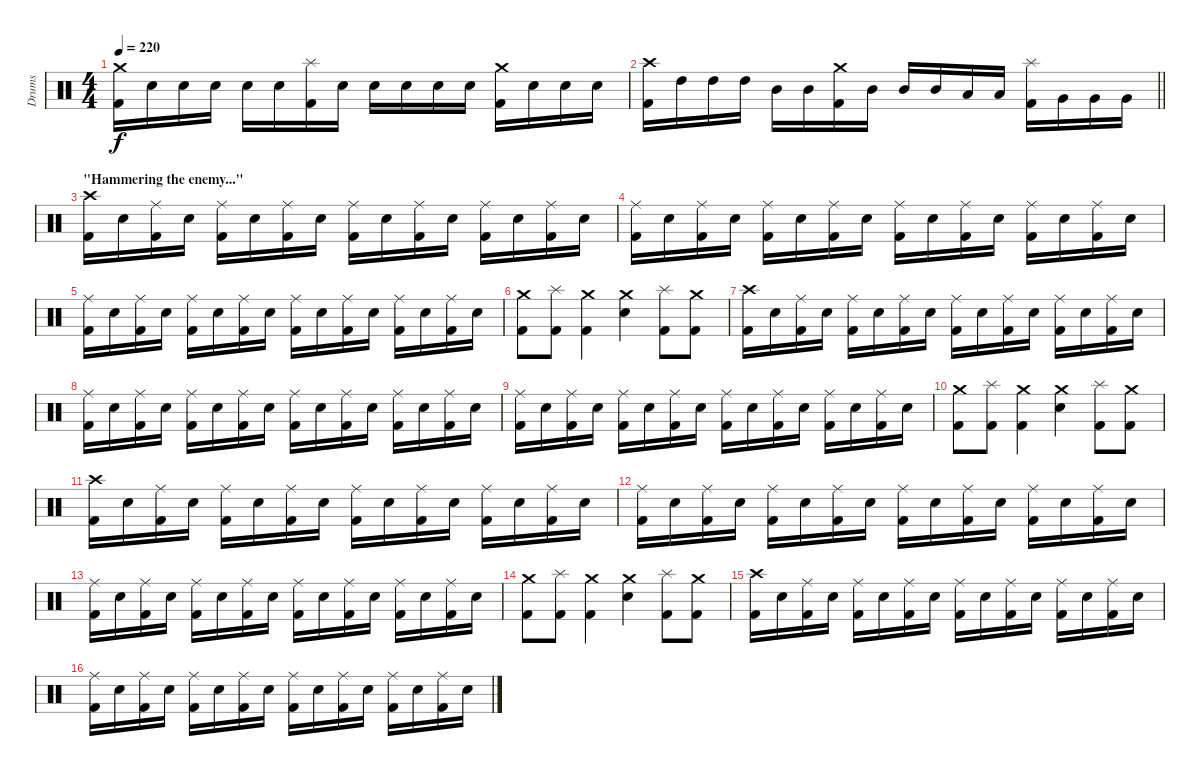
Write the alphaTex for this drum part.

\track ("Drums" "Drums") {instrument percussion}
\staff {score}
\articulation defaults
\ts (4 4)
\tempo 220
\clef neutral
\ks c
("Crash medium (hit)" "Kick (hit) 2").16{dy f} "Electric Snare (hit)".16 "Electric Snare (hit)".16 "Electric Snare (hit)".16 "Electric Snare (hit)".16 "Electric Snare (hit)".16 ("Splash (hit)" "Kick (hit) 2").16 "Electric Snare (hit)".16 "Electric Snare (hit)".16 "Electric Snare (hit)".16 "Electric Snare (hit)".16 "Electric Snare (hit)".16 ("Crash medium (hit)" "Kick (hit) 2").16 "Electric Snare (hit)".16 "Electric Snare (hit)".16 "Electric Snare (hit)".16 |
\barLineRight lightlight
("Crash high (hit)" "Kick (hit) 2").16 "High Tom (hit)".16 "High Tom (hit)".16 "High Tom (hit)".16 "Mid Tom (hit)".16 "Mid Tom (hit)".16 ("Crash medium (hit)" "Kick (hit) 2").16 "Mid Tom (hit)".16 "Mid Tom (hit)".16 "Mid Tom (hit)".16 "Low Tom (hit)".16 "Low Tom (hit)".16 ("Splash (hit)" "Kick (hit) 2").16 "Very Low Tom (hit)".16 "Very Low Tom (hit)".16 "Very Low Tom (hit)".16 |
\section ("" "\"Hammering the enemy...\"")
("Crash high (hit)" "Kick (hit) 2").16 "Electric Snare (hit)".16 ("Ride (middle)" "Kick (hit) 2").16 "Electric Snare (hit)".16 ("Ride (middle)" "Kick (hit) 2").16 "Electric Snare (hit)".16 ("Ride (middle)" "Kick (hit) 2").16 "Electric Snare (hit)".16 ("Ride (middle)" "Kick (hit) 2").16 "Electric Snare (hit)".16 ("Ride (middle)" "Kick (hit) 2").16 "Electric Snare (hit)".16 ("Ride (middle)" "Kick (hit) 2").16 "Electric Snare (hit)".16 ("Ride (middle)" "Kick (hit) 2").16 "Electric Snare (hit)".16 |
("Ride (middle)" "Kick (hit) 2").16 "Electric Snare (hit)".16 ("Ride (middle)" "Kick (hit) 2").16 "Electric Snare (hit)".16 ("Ride (middle)" "Kick (hit) 2").16 "Electric Snare (hit)".16 ("Ride (middle)" "Kick (hit) 2").16 "Electric Snare (hit)".16 ("Ride (middle)" "Kick (hit) 2").16 "Electric Snare (hit)".16 ("Ride (middle)" "Kick (hit) 2").16 "Electric Snare (hit)".16 ("Ride (middle)" "Kick (hit) 2").16 "Electric Snare (hit)".16 ("Ride (middle)" "Kick (hit) 2").16 "Electric Snare (hit)".16 |
("Ride (middle)" "Kick (hit) 2").16 "Electric Snare (hit)".16 ("Ride (middle)" "Kick (hit) 2").16 "Electric Snare (hit)".16 ("Ride (middle)" "Kick (hit) 2").16 "Electric Snare (hit)".16 ("Ride (middle)" "Kick (hit) 2").16 "Electric Snare (hit)".16 ("Ride (middle)" "Kick (hit) 2").16 "Electric Snare (hit)".16 ("Ride (middle)" "Kick (hit) 2").16 "Electric Snare (hit)".16 ("Ride (middle)" "Kick (hit) 2").16 "Electric Snare (hit)".16 ("Ride (middle)" "Kick (hit) 2").16 "Electric Snare (hit)".16 |
("Crash medium (hit)" "Kick (hit) 2").8 ("Splash (hit)" "Kick (hit) 2").8 ("Crash medium (hit)" "Kick (hit) 2").4 ("Crash medium (hit)" "Electric Snare (hit)").4 ("Splash (hit)" "Kick (hit) 2").8 ("Crash medium (hit)" "Kick (hit) 2").8 |
("Crash high (hit)" "Kick (hit) 2").16 "Electric Snare (hit)".16 ("Ride (middle)" "Kick (hit) 2").16 "Electric Snare (hit)".16 ("Ride (middle)" "Kick (hit) 2").16 "Electric Snare (hit)".16 ("Ride (middle)" "Kick (hit) 2").16 "Electric Snare (hit)".16 ("Ride (middle)" "Kick (hit) 2").16 "Electric Snare (hit)".16 ("Ride (middle)" "Kick (hit) 2").16 "Electric Snare (hit)".16 ("Ride (middle)" "Kick (hit) 2").16 "Electric Snare (hit)".16 ("Ride (middle)" "Kick (hit) 2").16 "Electric Snare (hit)".16 |
("Ride (middle)" "Kick (hit) 2").16 "Electric Snare (hit)".16 ("Ride (middle)" "Kick (hit) 2").16 "Electric Snare (hit)".16 ("Ride (middle)" "Kick (hit) 2").16 "Electric Snare (hit)".16 ("Ride (middle)" "Kick (hit) 2").16 "Electric Snare (hit)".16 ("Ride (middle)" "Kick (hit) 2").16 "Electric Snare (hit)".16 ("Ride (middle)" "Kick (hit) 2").16 "Electric Snare (hit)".16 ("Ride (middle)" "Kick (hit) 2").16 "Electric Snare (hit)".16 ("Ride (middle)" "Kick (hit) 2").16 "Electric Snare (hit)".16 |
("Ride (middle)" "Kick (hit) 2").16 "Electric Snare (hit)".16 ("Ride (middle)" "Kick (hit) 2").16 "Electric Snare (hit)".16 ("Ride (middle)" "Kick (hit) 2").16 "Electric Snare (hit)".16 ("Ride (middle)" "Kick (hit) 2").16 "Electric Snare (hit)".16 ("Ride (middle)" "Kick (hit) 2").16 "Electric Snare (hit)".16 ("Ride (middle)" "Kick (hit) 2").16 "Electric Snare (hit)".16 ("Ride (middle)" "Kick (hit) 2").16 "Electric Snare (hit)".16 ("Ride (middle)" "Kick (hit) 2").16 "Electric Snare (hit)".16 |
("Crash medium (hit)" "Kick (hit) 2").8 ("Splash (hit)" "Kick (hit) 2").8 ("Crash medium (hit)" "Kick (hit) 2").4 ("Crash medium (hit)" "Electric Snare (hit)").4 ("Splash (hit)" "Kick (hit) 2").8 ("Crash medium (hit)" "Kick (hit) 2").8 |
("Crash high (hit)" "Kick (hit) 2").16 "Electric Snare (hit)".16 ("Ride (middle)" "Kick (hit) 2").16 "Electric Snare (hit)".16 ("Ride (middle)" "Kick (hit) 2").16 "Electric Snare (hit)".16 ("Ride (middle)" "Kick (hit) 2").16 "Electric Snare (hit)".16 ("Ride (middle)" "Kick (hit) 2").16 "Electric Snare (hit)".16 ("Ride (middle)" "Kick (hit) 2").16 "Electric Snare (hit)".16 ("Ride (middle)" "Kick (hit) 2").16 "Electric Snare (hit)".16 ("Ride (middle)" "Kick (hit) 2").16 "Electric Snare (hit)".16 |
("Ride (middle)" "Kick (hit) 2").16 "Electric Snare (hit)".16 ("Ride (middle)" "Kick (hit) 2").16 "Electric Snare (hit)".16 ("Ride (middle)" "Kick (hit) 2").16 "Electric Snare (hit)".16 ("Ride (middle)" "Kick (hit) 2").16 "Electric Snare (hit)".16 ("Ride (middle)" "Kick (hit) 2").16 "Electric Snare (hit)".16 ("Ride (middle)" "Kick (hit) 2").16 "Electric Snare (hit)".16 ("Ride (middle)" "Kick (hit) 2").16 "Electric Snare (hit)".16 ("Ride (middle)" "Kick (hit) 2").16 "Electric Snare (hit)".16 |
("Ride (middle)" "Kick (hit) 2").16 "Electric Snare (hit)".16 ("Ride (middle)" "Kick (hit) 2").16 "Electric Snare (hit)".16 ("Ride (middle)" "Kick (hit) 2").16 "Electric Snare (hit)".16 ("Ride (middle)" "Kick (hit) 2").16 "Electric Snare (hit)".16 ("Ride (middle)" "Kick (hit) 2").16 "Electric Snare (hit)".16 ("Ride (middle)" "Kick (hit) 2").16 "Electric Snare (hit)".16 ("Ride (middle)" "Kick (hit) 2").16 "Electric Snare (hit)".16 ("Ride (middle)" "Kick (hit) 2").16 "Electric Snare (hit)".16 |
("Crash medium (hit)" "Kick (hit) 2").8 ("Splash (hit)" "Kick (hit) 2").8 ("Crash medium (hit)" "Kick (hit) 2").4 ("Crash medium (hit)" "Electric Snare (hit)").4 ("Splash (hit)" "Kick (hit) 2").8 ("Crash medium (hit)" "Kick (hit) 2").8 |
("Crash high (hit)" "Kick (hit) 2").16 "Electric Snare (hit)".16 ("Ride (middle)" "Kick (hit) 2").16 "Electric Snare (hit)".16 ("Ride (middle)" "Kick (hit) 2").16 "Electric Snare (hit)".16 ("Ride (middle)" "Kick (hit) 2").16 "Electric Snare (hit)".16 ("Ride (middle)" "Kick (hit) 2").16 "Electric Snare (hit)".16 ("Ride (middle)" "Kick (hit) 2").16 "Electric Snare (hit)".16 ("Ride (middle)" "Kick (hit) 2").16 "Electric Snare (hit)".16 ("Ride (middle)" "Kick (hit) 2").16 "Electric Snare (hit)".16 |
("Ride (middle)" "Kick (hit) 2").16 "Electric Snare (hit)".16 ("Ride (middle)" "Kick (hit) 2").16 "Electric Snare (hit)".16 ("Ride (middle)" "Kick (hit) 2").16 "Electric Snare (hit)".16 ("Ride (middle)" "Kick (hit) 2").16 "Electric Snare (hit)".16 ("Ride (middle)" "Kick (hit) 2").16 "Electric Snare (hit)".16 ("Ride (middle)" "Kick (hit) 2").16 "Electric Snare (hit)".16 ("Ride (middle)" "Kick (hit) 2").16 "Electric Snare (hit)".16 ("Ride (middle)" "Kick (hit) 2").16 "Electric Snare (hit)".16
